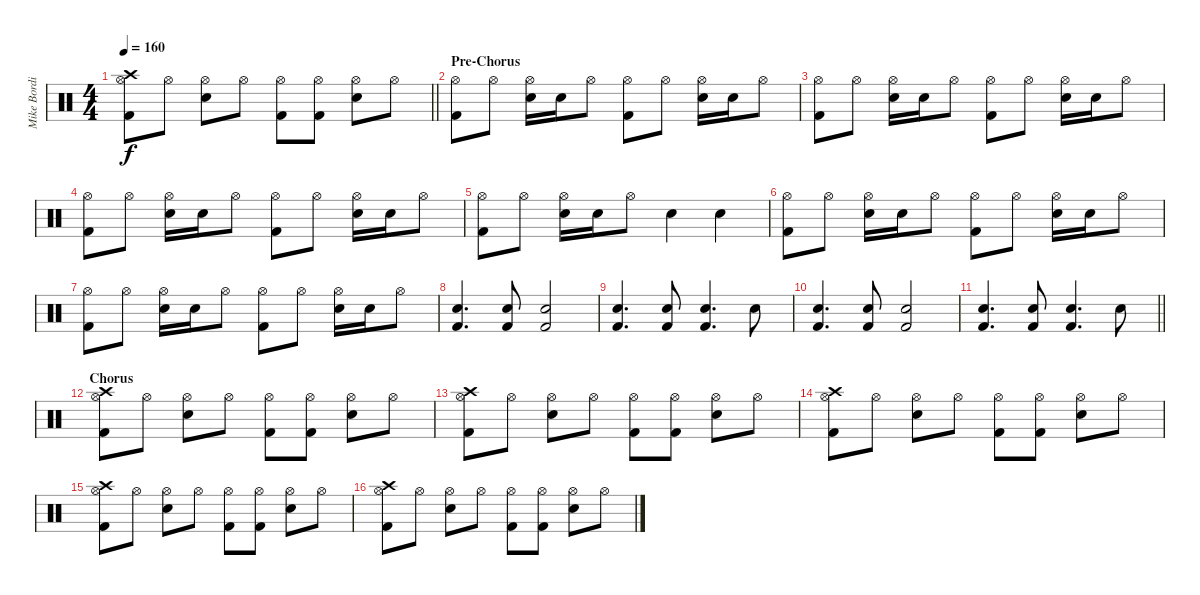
\track ("Mike Bordin - Drums" "Mike Bordi") {instrument percussion}
\staff {score}
\articulation defaults
\ts (4 4)
\tempo 160
\clef neutral
\barLineRight lightlight
\ks c
("Crash high (hit)" "Hi-Hat (open)" "Kick (hit) 2").8{dy f} "Hi-Hat (open)".8 ("Hi-Hat (open)" "Snare (hit) 2").8 "Hi-Hat (open)".8 ("Hi-Hat (open)" "Kick (hit) 2").8 ("Hi-Hat (open)" "Kick (hit) 2").8 ("Hi-Hat (open)" "Snare (hit) 2").8 "Hi-Hat (open)".8 |
\section ("" "Pre-Chorus")
("Hi-Hat (open)" "Kick (hit) 2").8 "Hi-Hat (open)".8 ("Hi-Hat (open)" "Snare (hit) 2").16 "Snare (hit) 2".16 "Hi-Hat (open)".8 ("Hi-Hat (open)" "Kick (hit) 2").8 "Hi-Hat (open)".8 ("Hi-Hat (open)" "Snare (hit) 2").16 "Snare (hit) 2".16 "Hi-Hat (open)".8 |
("Hi-Hat (open)" "Kick (hit) 2").8 "Hi-Hat (open)".8 ("Hi-Hat (open)" "Snare (hit) 2").16 "Snare (hit) 2".16 "Hi-Hat (open)".8 ("Hi-Hat (open)" "Kick (hit) 2").8 "Hi-Hat (open)".8 ("Hi-Hat (open)" "Snare (hit) 2").16 "Snare (hit) 2".16 "Hi-Hat (open)".8 |
("Hi-Hat (open)" "Kick (hit) 2").8 "Hi-Hat (open)".8 ("Hi-Hat (open)" "Snare (hit) 2").16 "Snare (hit) 2".16 "Hi-Hat (open)".8 ("Hi-Hat (open)" "Kick (hit) 2").8 "Hi-Hat (open)".8 ("Hi-Hat (open)" "Snare (hit) 2").16 "Snare (hit) 2".16 "Hi-Hat (open)".8 |
("Hi-Hat (open)" "Kick (hit) 2").8 "Hi-Hat (open)".8 ("Hi-Hat (open)" "Snare (hit) 2").16 "Snare (hit) 2".16 "Hi-Hat (open)".8 "Snare (hit) 2".4 "Snare (hit) 2".4 |
("Hi-Hat (open)" "Kick (hit) 2").8 "Hi-Hat (open)".8 ("Hi-Hat (open)" "Snare (hit) 2").16 "Snare (hit) 2".16 "Hi-Hat (open)".8 ("Hi-Hat (open)" "Kick (hit) 2").8 "Hi-Hat (open)".8 ("Hi-Hat (open)" "Snare (hit) 2").16 "Snare (hit) 2".16 "Hi-Hat (open)".8 |
("Hi-Hat (open)" "Kick (hit) 2").8 "Hi-Hat (open)".8 ("Hi-Hat (open)" "Snare (hit) 2").16 "Snare (hit) 2".16 "Hi-Hat (open)".8 ("Hi-Hat (open)" "Kick (hit) 2").8 "Hi-Hat (open)".8 ("Hi-Hat (open)" "Snare (hit) 2").16 "Snare (hit) 2".16 "Hi-Hat (open)".8 |
("Snare (hit) 2" "Kick (hit) 2").4{d} ("Snare (hit) 2" "Kick (hit) 2").8 ("Snare (hit) 2" "Kick (hit) 2").2 |
("Snare (hit) 2" "Kick (hit) 2").4{d} ("Snare (hit) 2" "Kick (hit) 2").8 ("Snare (hit) 2" "Kick (hit) 2").4{d} "Snare (hit) 2".8 |
("Snare (hit) 2" "Kick (hit) 2").4{d} ("Snare (hit) 2" "Kick (hit) 2").8 ("Snare (hit) 2" "Kick (hit) 2").2 |
\barLineRight lightlight
("Snare (hit) 2" "Kick (hit) 2").4{d} ("Snare (hit) 2" "Kick (hit) 2").8 ("Snare (hit) 2" "Kick (hit) 2").4{d} "Snare (hit) 2".8 |
\section ("" "Chorus")
("Crash high (hit)" "Hi-Hat (open)" "Kick (hit) 2").8 "Hi-Hat (open)".8 ("Hi-Hat (open)" "Snare (hit) 2").8 "Hi-Hat (open)".8 ("Hi-Hat (open)" "Kick (hit) 2").8 ("Hi-Hat (open)" "Kick (hit) 2").8 ("Hi-Hat (open)" "Snare (hit) 2").8 "Hi-Hat (open)".8 |
("Crash high (hit)" "Hi-Hat (open)" "Kick (hit) 2").8 "Hi-Hat (open)".8 ("Hi-Hat (open)" "Snare (hit) 2").8 "Hi-Hat (open)".8 ("Hi-Hat (open)" "Kick (hit) 2").8 ("Hi-Hat (open)" "Kick (hit) 2").8 ("Hi-Hat (open)" "Snare (hit) 2").8 "Hi-Hat (open)".8 |
("Crash high (hit)" "Hi-Hat (open)" "Kick (hit) 2").8 "Hi-Hat (open)".8 ("Hi-Hat (open)" "Snare (hit) 2").8 "Hi-Hat (open)".8 ("Hi-Hat (open)" "Kick (hit) 2").8 ("Hi-Hat (open)" "Kick (hit) 2").8 ("Hi-Hat (open)" "Snare (hit) 2").8 "Hi-Hat (open)".8 |
("Crash high (hit)" "Hi-Hat (open)" "Kick (hit) 2").8 "Hi-Hat (open)".8 ("Hi-Hat (open)" "Snare (hit) 2").8 "Hi-Hat (open)".8 ("Hi-Hat (open)" "Kick (hit) 2").8 ("Hi-Hat (open)" "Kick (hit) 2").8 ("Hi-Hat (open)" "Snare (hit) 2").8 "Hi-Hat (open)".8 |
("Crash high (hit)" "Hi-Hat (open)" "Kick (hit) 2").8 "Hi-Hat (open)".8 ("Hi-Hat (open)" "Snare (hit) 2").8 "Hi-Hat (open)".8 ("Hi-Hat (open)" "Kick (hit) 2").8 ("Hi-Hat (open)" "Kick (hit) 2").8 ("Hi-Hat (open)" "Snare (hit) 2").8 "Hi-Hat (open)".8
